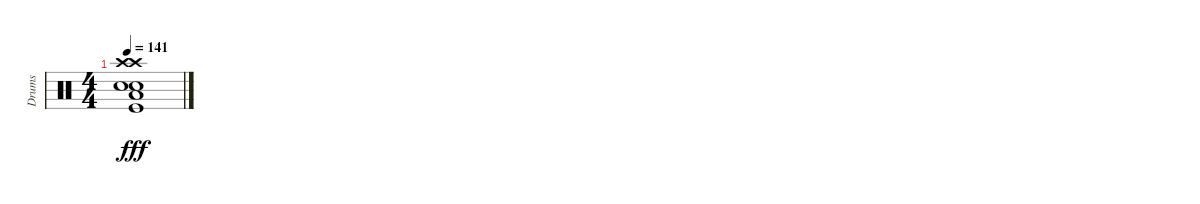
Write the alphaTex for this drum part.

\track ("Drums" "Drums") {instrument percussion}
\staff {score}
\articulation defaults
\ts (4 4)
\tempo 141
\clef neutral
\ks c
("Crash high (hit)" "Crash high (hit)" "Low Floor Tom (hit)" "Snare (hit) 2" "Snare (hit) 2" "Kick (hit)").1{dy fff}
